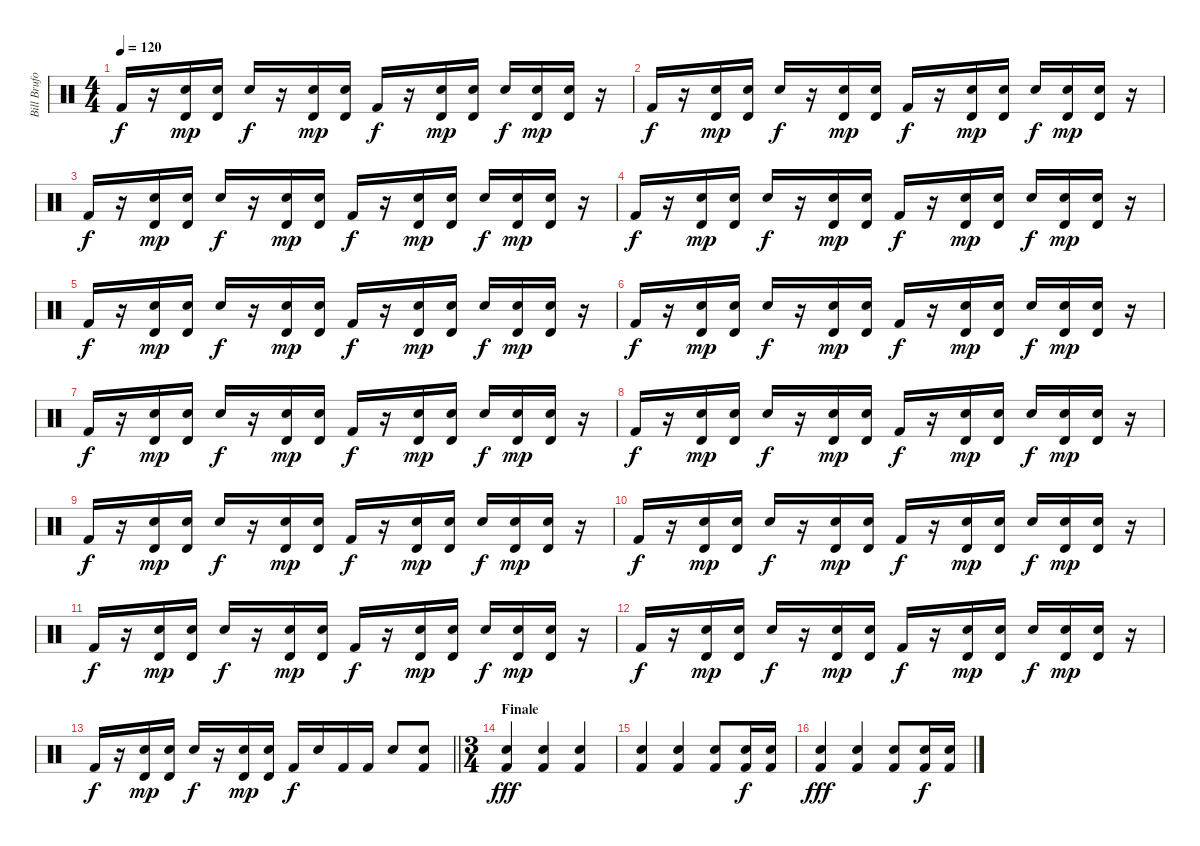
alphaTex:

\track ("Bill Bruford (Drums)" "Bill Brufo") {instrument percussion}
\staff {score}
\articulation defaults
\ts (4 4)
\tempo 120
\clef neutral
\ks c "Kick (hit) 2".16{dy f}
r.16 ("Electric Snare (hit)" "Timbale high (hit)").16{dy mp} ("Electric Snare (hit)" "Timbale high (hit)").16 "Electric Snare (hit)".16{dy f} r.16 ("Electric Snare (hit)" "Timbale high (hit)").16{dy mp} ("Electric Snare (hit)" "Timbale high (hit)").16 "Kick (hit) 2".16{dy f} r.16 ("Electric Snare (hit)" "Timbale high (hit)").16{dy mp} ("Electric Snare (hit)" "Timbale high (hit)").16 "Electric Snare (hit)".16{dy f} ("Electric Snare (hit)" "Timbale high (hit)").16{dy mp} ("Electric Snare (hit)" "Timbale high (hit)").16 r.16 |
"Kick (hit) 2".16{dy f} r.16 ("Electric Snare (hit)" "Timbale high (hit)").16{dy mp} ("Electric Snare (hit)" "Timbale high (hit)").16 "Electric Snare (hit)".16{dy f} r.16 ("Electric Snare (hit)" "Timbale high (hit)").16{dy mp} ("Electric Snare (hit)" "Timbale high (hit)").16 "Kick (hit) 2".16{dy f} r.16 ("Electric Snare (hit)" "Timbale high (hit)").16{dy mp} ("Electric Snare (hit)" "Timbale high (hit)").16 "Electric Snare (hit)".16{dy f} ("Electric Snare (hit)" "Timbale high (hit)").16{dy mp} ("Electric Snare (hit)" "Timbale high (hit)").16 r.16 |
"Kick (hit) 2".16{dy f} r.16 ("Electric Snare (hit)" "Timbale high (hit)").16{dy mp} ("Electric Snare (hit)" "Timbale high (hit)").16 "Electric Snare (hit)".16{dy f} r.16 ("Electric Snare (hit)" "Timbale high (hit)").16{dy mp} ("Electric Snare (hit)" "Timbale high (hit)").16 "Kick (hit) 2".16{dy f} r.16 ("Electric Snare (hit)" "Timbale high (hit)").16{dy mp} ("Electric Snare (hit)" "Timbale high (hit)").16 "Electric Snare (hit)".16{dy f} ("Electric Snare (hit)" "Timbale high (hit)").16{dy mp} ("Electric Snare (hit)" "Timbale high (hit)").16 r.16 |
"Kick (hit) 2".16{dy f} r.16 ("Electric Snare (hit)" "Timbale high (hit)").16{dy mp} ("Electric Snare (hit)" "Timbale high (hit)").16 "Electric Snare (hit)".16{dy f} r.16 ("Electric Snare (hit)" "Timbale high (hit)").16{dy mp} ("Electric Snare (hit)" "Timbale high (hit)").16 "Kick (hit) 2".16{dy f} r.16 ("Electric Snare (hit)" "Timbale high (hit)").16{dy mp} ("Electric Snare (hit)" "Timbale high (hit)").16 "Electric Snare (hit)".16{dy f} ("Electric Snare (hit)" "Timbale high (hit)").16{dy mp} ("Electric Snare (hit)" "Timbale high (hit)").16 r.16 |
"Kick (hit) 2".16{dy f} r.16 ("Electric Snare (hit)" "Timbale high (hit)").16{dy mp} ("Electric Snare (hit)" "Timbale high (hit)").16 "Electric Snare (hit)".16{dy f} r.16 ("Electric Snare (hit)" "Timbale high (hit)").16{dy mp} ("Electric Snare (hit)" "Timbale high (hit)").16 "Kick (hit) 2".16{dy f} r.16 ("Electric Snare (hit)" "Timbale high (hit)").16{dy mp} ("Electric Snare (hit)" "Timbale high (hit)").16 "Electric Snare (hit)".16{dy f} ("Electric Snare (hit)" "Timbale high (hit)").16{dy mp} ("Electric Snare (hit)" "Timbale high (hit)").16 r.16 |
"Kick (hit) 2".16{dy f} r.16 ("Electric Snare (hit)" "Timbale high (hit)").16{dy mp} ("Electric Snare (hit)" "Timbale high (hit)").16 "Electric Snare (hit)".16{dy f} r.16 ("Electric Snare (hit)" "Timbale high (hit)").16{dy mp} ("Electric Snare (hit)" "Timbale high (hit)").16 "Kick (hit) 2".16{dy f} r.16 ("Electric Snare (hit)" "Timbale high (hit)").16{dy mp} ("Electric Snare (hit)" "Timbale high (hit)").16 "Electric Snare (hit)".16{dy f} ("Electric Snare (hit)" "Timbale high (hit)").16{dy mp} ("Electric Snare (hit)" "Timbale high (hit)").16 r.16 |
"Kick (hit) 2".16{dy f} r.16 ("Electric Snare (hit)" "Timbale high (hit)").16{dy mp} ("Electric Snare (hit)" "Timbale high (hit)").16 "Electric Snare (hit)".16{dy f} r.16 ("Electric Snare (hit)" "Timbale high (hit)").16{dy mp} ("Electric Snare (hit)" "Timbale high (hit)").16 "Kick (hit) 2".16{dy f} r.16 ("Electric Snare (hit)" "Timbale high (hit)").16{dy mp} ("Electric Snare (hit)" "Timbale high (hit)").16 "Electric Snare (hit)".16{dy f} ("Electric Snare (hit)" "Timbale high (hit)").16{dy mp} ("Electric Snare (hit)" "Timbale high (hit)").16 r.16 |
"Kick (hit) 2".16{dy f} r.16 ("Electric Snare (hit)" "Timbale high (hit)").16{dy mp} ("Electric Snare (hit)" "Timbale high (hit)").16 "Electric Snare (hit)".16{dy f} r.16 ("Electric Snare (hit)" "Timbale high (hit)").16{dy mp} ("Electric Snare (hit)" "Timbale high (hit)").16 "Kick (hit) 2".16{dy f} r.16 ("Electric Snare (hit)" "Timbale high (hit)").16{dy mp} ("Electric Snare (hit)" "Timbale high (hit)").16 "Electric Snare (hit)".16{dy f} ("Electric Snare (hit)" "Timbale high (hit)").16{dy mp} ("Electric Snare (hit)" "Timbale high (hit)").16 r.16 |
"Kick (hit) 2".16{dy f} r.16 ("Electric Snare (hit)" "Timbale high (hit)").16{dy mp} ("Electric Snare (hit)" "Timbale high (hit)").16 "Electric Snare (hit)".16{dy f} r.16 ("Electric Snare (hit)" "Timbale high (hit)").16{dy mp} ("Electric Snare (hit)" "Timbale high (hit)").16 "Kick (hit) 2".16{dy f} r.16 ("Electric Snare (hit)" "Timbale high (hit)").16{dy mp} ("Electric Snare (hit)" "Timbale high (hit)").16 "Electric Snare (hit)".16{dy f} ("Electric Snare (hit)" "Timbale high (hit)").16{dy mp} ("Electric Snare (hit)" "Timbale high (hit)").16 r.16 |
"Kick (hit) 2".16{dy f} r.16 ("Electric Snare (hit)" "Timbale high (hit)").16{dy mp} ("Electric Snare (hit)" "Timbale high (hit)").16 "Electric Snare (hit)".16{dy f} r.16 ("Electric Snare (hit)" "Timbale high (hit)").16{dy mp} ("Electric Snare (hit)" "Timbale high (hit)").16 "Kick (hit) 2".16{dy f} r.16 ("Electric Snare (hit)" "Timbale high (hit)").16{dy mp} ("Electric Snare (hit)" "Timbale high (hit)").16 "Electric Snare (hit)".16{dy f} ("Electric Snare (hit)" "Timbale high (hit)").16{dy mp} ("Electric Snare (hit)" "Timbale high (hit)").16 r.16 |
"Kick (hit) 2".16{dy f} r.16 ("Electric Snare (hit)" "Timbale high (hit)").16{dy mp} ("Electric Snare (hit)" "Timbale high (hit)").16 "Electric Snare (hit)".16{dy f} r.16 ("Electric Snare (hit)" "Timbale high (hit)").16{dy mp} ("Electric Snare (hit)" "Timbale high (hit)").16 "Kick (hit) 2".16{dy f} r.16 ("Electric Snare (hit)" "Timbale high (hit)").16{dy mp} ("Electric Snare (hit)" "Timbale high (hit)").16 "Electric Snare (hit)".16{dy f} ("Electric Snare (hit)" "Timbale high (hit)").16{dy mp} ("Electric Snare (hit)" "Timbale high (hit)").16 r.16 |
"Kick (hit) 2".16{dy f} r.16 ("Electric Snare (hit)" "Timbale high (hit)").16{dy mp} ("Electric Snare (hit)" "Timbale high (hit)").16 "Electric Snare (hit)".16{dy f} r.16 ("Electric Snare (hit)" "Timbale high (hit)").16{dy mp} ("Electric Snare (hit)" "Timbale high (hit)").16 "Kick (hit) 2".16{dy f} r.16 ("Electric Snare (hit)" "Timbale high (hit)").16{dy mp} ("Electric Snare (hit)" "Timbale high (hit)").16 "Electric Snare (hit)".16{dy f} ("Electric Snare (hit)" "Timbale high (hit)").16{dy mp} ("Electric Snare (hit)" "Timbale high (hit)").16 r.16 |
\barLineRight lightlight "Kick (hit) 2".16{dy f}
r.16 ("Electric Snare (hit)" "Timbale high (hit)").16{dy mp} ("Electric Snare (hit)" "Timbale high (hit)").16 "Electric Snare (hit)".16{dy f} r.16 ("Electric Snare (hit)" "Timbale high (hit)").16{dy mp} ("Electric Snare (hit)" "Timbale high (hit)").16 "Kick (hit) 2".16{dy f} "Snare (hit) 2".16 "Kick (hit) 2".16 "Kick (hit) 2".16 "Snare (hit) 2".8 ("Snare (hit) 2" "Kick (hit) 2").8 |
\ts (3 4)
\section ("" "Finale")
("Snare (hit) 2" "Kick (hit) 2").4{dy fff} ("Snare (hit) 2" "Kick (hit) 2").4 ("Snare (hit) 2" "Kick (hit) 2").4 |
("Snare (hit) 2" "Kick (hit) 2").4 ("Snare (hit) 2" "Kick (hit) 2").4 ("Snare (hit) 2" "Kick (hit) 2").8 ("Snare (hit) 2" "Kick (hit) 2").16{dy f} ("Snare (hit) 2" "Kick (hit) 2").16 |
("Snare (hit) 2" "Kick (hit) 2").4{dy fff} ("Snare (hit) 2" "Kick (hit) 2").4 ("Snare (hit) 2" "Kick (hit) 2").8 ("Snare (hit) 2" "Kick (hit) 2").16{dy f} ("Snare (hit) 2" "Kick (hit) 2").16
